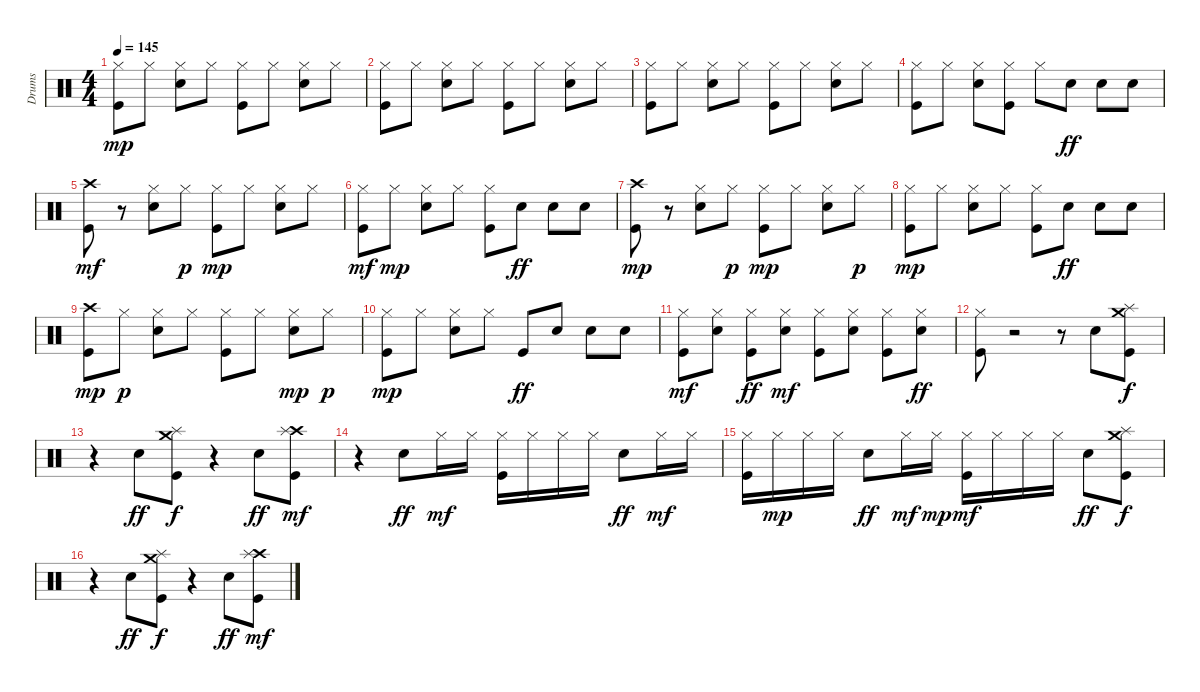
\track ("Drums" "Drums") {instrument percussion}
\staff {score}
\articulation defaults
\ts (4 4)
\tempo 145
\clef neutral
\ks c
("Kick (hit)" "Hi-Hat (closed)").8{dy mp} "Hi-Hat (closed)".8 ("Snare (hit) 2" "Hi-Hat (closed)").8 "Hi-Hat (closed)".8 ("Kick (hit)" "Hi-Hat (closed)").8 "Hi-Hat (closed)".8 ("Snare (hit) 2" "Hi-Hat (closed)").8 "Hi-Hat (closed)".8 |
("Kick (hit)" "Hi-Hat (closed)").8 "Hi-Hat (closed)".8 ("Snare (hit) 2" "Hi-Hat (closed)").8 "Hi-Hat (closed)".8 ("Kick (hit)" "Hi-Hat (closed)").8 "Hi-Hat (closed)".8 ("Snare (hit) 2" "Hi-Hat (closed)").8 "Hi-Hat (closed)".8 |
("Kick (hit)" "Hi-Hat (closed)").8 "Hi-Hat (closed)".8 ("Snare (hit) 2" "Hi-Hat (closed)").8 "Hi-Hat (closed)".8 ("Kick (hit)" "Hi-Hat (closed)").8 "Hi-Hat (closed)".8 ("Snare (hit) 2" "Hi-Hat (closed)").8 "Hi-Hat (closed)".8 |
("Kick (hit)" "Hi-Hat (closed)").8 "Hi-Hat (closed)".8 ("Snare (hit) 2" "Hi-Hat (closed)").8 ("Kick (hit)" "Hi-Hat (closed)").8 "Hi-Hat (closed)".8 "Snare (hit) 2".8{dy ff} "Snare (hit) 2".8 "Snare (hit) 2".8 |
("Kick (hit)" "Crash high (hit)").8{dy mf} r.8 ("Snare (hit) 2" "Hi-Hat (closed)").8 "Hi-Hat (closed)".8{dy p} ("Kick (hit)" "Hi-Hat (closed)").8{dy mp} "Hi-Hat (closed)".8 ("Snare (hit) 2" "Hi-Hat (closed)").8 "Hi-Hat (closed)".8 |
("Kick (hit)" "Hi-Hat (closed)").8{dy mf} "Hi-Hat (closed)".8{dy mp} ("Snare (hit) 2" "Hi-Hat (closed)").8 "Hi-Hat (closed)".8 ("Kick (hit)" "Hi-Hat (closed)").8 "Snare (hit) 2".8{dy ff} "Snare (hit) 2".8 "Snare (hit) 2".8 |
("Kick (hit)" "Crash high (hit)").8{dy mp} r.8 ("Snare (hit) 2" "Hi-Hat (closed)").8 "Hi-Hat (closed)".8{dy p} ("Kick (hit)" "Hi-Hat (closed)").8{dy mp} "Hi-Hat (closed)".8 ("Snare (hit) 2" "Hi-Hat (closed)").8 "Hi-Hat (closed)".8{dy p} |
("Kick (hit)" "Hi-Hat (closed)").8{dy mp} "Hi-Hat (closed)".8 ("Snare (hit) 2" "Hi-Hat (closed)").8 "Hi-Hat (closed)".8 ("Kick (hit)" "Hi-Hat (closed)").8 "Snare (hit) 2".8{dy ff} "Snare (hit) 2".8 "Snare (hit) 2".8 |
("Kick (hit)" "Crash high (hit)").8{dy mp} "Hi-Hat (closed)".8{dy p} ("Snare (hit) 2" "Hi-Hat (closed)").8 "Hi-Hat (closed)".8 ("Kick (hit)" "Hi-Hat (closed)").8 "Hi-Hat (closed)".8 ("Snare (hit) 2" "Hi-Hat (closed)").8{dy mp} "Hi-Hat (closed)".8{dy p} |
("Kick (hit)" "Hi-Hat (closed)").8{dy mp} "Hi-Hat (closed)".8 ("Snare (hit) 2" "Hi-Hat (closed)").8 "Hi-Hat (closed)".8 "Kick (hit)".8{dy ff} "Snare (hit) 2".8 "Snare (hit) 2".8 "Snare (hit) 2".8 |
("Kick (hit)" "Hi-Hat (closed)").8{dy mf} ("Snare (hit) 2" "Hi-Hat (closed)").8 ("Kick (hit)" "Hi-Hat (closed)").8{dy ff} ("Snare (hit) 2" "Hi-Hat (closed)").8{dy mf} ("Kick (hit)" "Hi-Hat (closed)").8 ("Snare (hit) 2" "Hi-Hat (closed)").8 ("Kick (hit)" "Hi-Hat (closed)").8 ("Snare (hit) 2" "Hi-Hat (closed)").8{dy ff} |
("Kick (hit)" "Hi-Hat (closed)").8 r.2 r.8 "Snare (hit) 2".8 ("Kick (hit)" "Splash (hit)" "Crash medium (hit)").8{dy f} |
r.4 "Snare (hit) 2".8{dy ff} ("Kick (hit)" "Splash (hit)" "Crash medium (hit)").8{dy f} r.4 "Snare (hit) 2".8{dy ff} ("Kick (hit)" "Crash high (hit)" "Splash (hit)").8{dy mf} |
r.4 "Snare (hit) 2".8{dy ff} "Hi-Hat (closed)".16{dy mf} "Hi-Hat (closed)".16 ("Kick (hit)" "Hi-Hat (closed)").16 "Hi-Hat (closed)".16 "Hi-Hat (closed)".16 "Hi-Hat (closed)".16 "Snare (hit) 2".8{dy ff} "Hi-Hat (closed)".16{dy mf} "Hi-Hat (closed)".16 |
("Kick (hit)" "Hi-Hat (closed)").16 "Hi-Hat (closed)".16{dy mp} "Hi-Hat (closed)".16 "Hi-Hat (closed)".16 "Snare (hit) 2".8{dy ff} "Hi-Hat (closed)".16{dy mf} "Hi-Hat (closed)".16{dy mp} ("Kick (hit)" "Hi-Hat (closed)").16{dy mf} "Hi-Hat (closed)".16 "Hi-Hat (closed)".16 "Hi-Hat (closed)".16 "Snare (hit) 2".8{dy ff} ("Kick (hit)" "Splash (hit)" "Crash medium (hit)").8{dy f} |
r.4 "Snare (hit) 2".8{dy ff} ("Kick (hit)" "Splash (hit)" "Crash medium (hit)").8{dy f} r.4 "Snare (hit) 2".8{dy ff} ("Kick (hit)" "Crash high (hit)" "Splash (hit)").8{dy mf}
